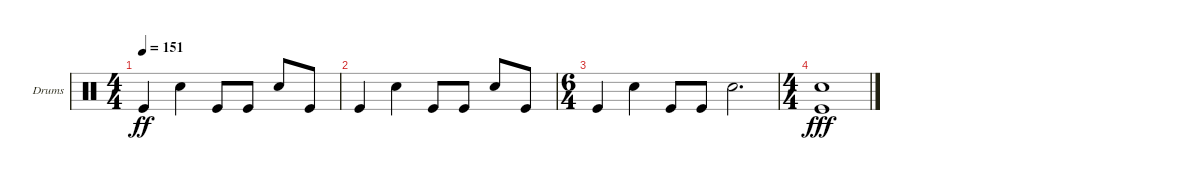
\defaultSystemsLayout 4
\bracketExtendMode groupsimilarinstruments
\firstSystemTrackNameOrientation horizontal
\otherSystemsTrackNameOrientation horizontal
\track ("Helders" "Drums") {instrument percussion}
\staff {score}
\articulation defaults
\ts (4 4)
\tempo 151
\clef neutral
\ks c "Kick (hit)".4{dy ff} "Snare (hit) 2".4 "Kick (hit)".8 "Kick (hit)".8 "Snare (hit) 2".8 "Kick (hit)".8
|
"Kick (hit)".4 "Snare (hit) 2".4 "Kick (hit)".8 "Kick (hit)".8 "Snare (hit) 2".8 "Kick (hit)".8 |
\ts (6 4)
"Kick (hit)".4 "Snare (hit) 2".4 "Kick (hit)".8 "Kick (hit)".8 "Snare (hit) 2".2{d} |
\ts (4 4)
("Kick (hit)" "Snare (hit) 2").1{dy fff}
